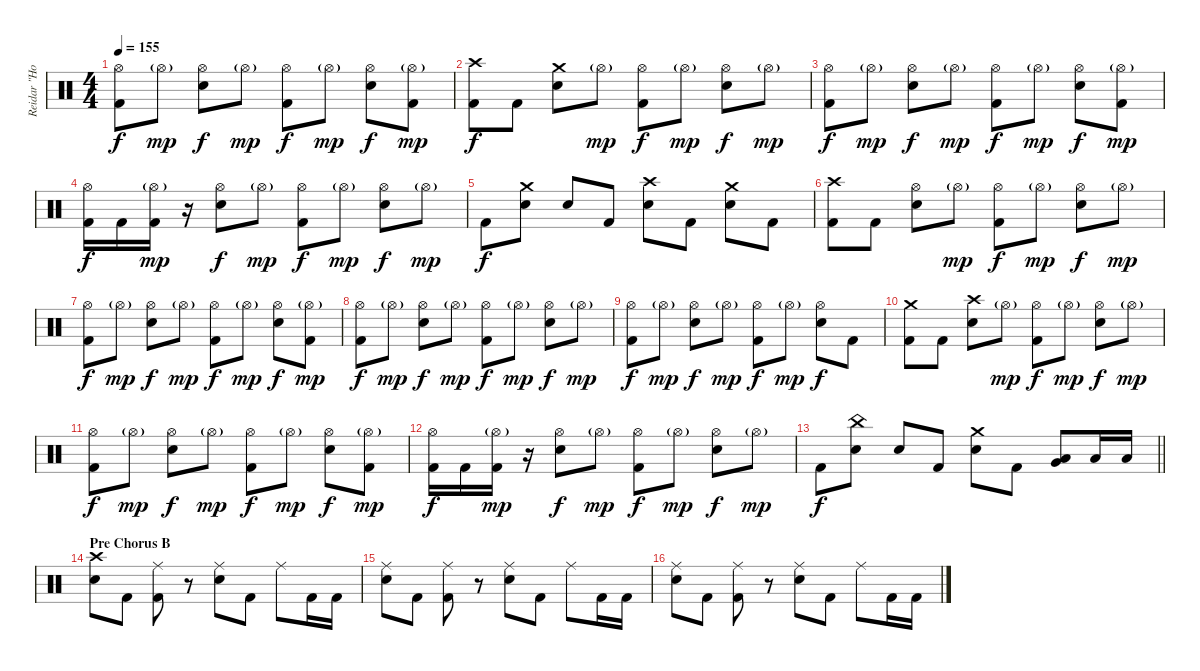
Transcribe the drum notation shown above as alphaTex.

\track ("Reidar \"Horgh\" Horghagen " "Reidar \"Ho") {instrument percussion}
\staff {score}
\articulation defaults
\ts (4 4)
\tempo 155
\clef neutral
\ks c
("Hi-Hat (open)" "Kick (hit) 2").8{dy f} "Hi-Hat (open)"{g}.8{dy mp} ("Hi-Hat (open)" "Snare (hit) 2").8{dy f} "Hi-Hat (open)"{g}.8{dy mp} ("Hi-Hat (open)" "Kick (hit) 2").8{dy f} "Hi-Hat (open)"{g}.8{dy mp} ("Hi-Hat (open)" "Snare (hit) 2").8{dy f} ("Hi-Hat (open)"{g} "Kick (hit) 2").8{dy mp} |
("Crash high (hit)" "Kick (hit) 2").8{dy f} "Kick (hit) 2".8 ("Crash medium (hit)" "Snare (hit) 2").8 "Hi-Hat (open)"{g}.8{dy mp} ("Hi-Hat (open)" "Kick (hit) 2").8{dy f} "Hi-Hat (open)"{g}.8{dy mp} ("Hi-Hat (open)" "Snare (hit) 2").8{dy f} "Hi-Hat (open)"{g}.8{dy mp} |
("Hi-Hat (open)" "Kick (hit) 2").8{dy f} "Hi-Hat (open)"{g}.8{dy mp} ("Hi-Hat (open)" "Snare (hit) 2").8{dy f} "Hi-Hat (open)"{g}.8{dy mp} ("Hi-Hat (open)" "Kick (hit) 2").8{dy f} "Hi-Hat (open)"{g}.8{dy mp} ("Hi-Hat (open)" "Snare (hit) 2").8{dy f} ("Hi-Hat (open)"{g} "Kick (hit) 2").8{dy mp} |
("Hi-Hat (open)" "Kick (hit) 2").16{dy f} "Kick (hit) 2".16 ("Hi-Hat (open)"{g} "Kick (hit) 2").16{dy mp} r.16 ("Hi-Hat (open)" "Snare (hit) 2").8{dy f} "Hi-Hat (open)"{g}.8{dy mp} ("Hi-Hat (open)" "Kick (hit) 2").8{dy f} "Hi-Hat (open)"{g}.8{dy mp} ("Hi-Hat (open)" "Snare (hit) 2").8{dy f} "Hi-Hat (open)"{g}.8{dy mp} |
"Kick (hit) 2".8{dy f} ("Crash medium (hit)" "Snare (hit) 2").8 "Snare (hit) 2".8 "Kick (hit) 2".8 ("Crash high (hit)" "Snare (hit) 2").8 "Kick (hit) 2".8 ("Crash medium (hit)" "Snare (hit) 2").8 "Kick (hit) 2".8 |
("Crash high (hit)" "Kick (hit) 2").8 "Kick (hit) 2".8 ("Hi-Hat (open)" "Snare (hit) 2").8 "Hi-Hat (open)"{g}.8{dy mp} ("Hi-Hat (open)" "Kick (hit) 2").8{dy f} "Hi-Hat (open)"{g}.8{dy mp} ("Hi-Hat (open)" "Snare (hit) 2").8{dy f} "Hi-Hat (open)"{g}.8{dy mp} |
("Hi-Hat (open)" "Kick (hit) 2").8{dy f} "Hi-Hat (open)"{g}.8{dy mp} ("Hi-Hat (open)" "Snare (hit) 2").8{dy f} "Hi-Hat (open)"{g}.8{dy mp} ("Hi-Hat (open)" "Kick (hit) 2").8{dy f} "Hi-Hat (open)"{g}.8{dy mp} ("Hi-Hat (open)" "Snare (hit) 2").8{dy f} ("Hi-Hat (open)"{g} "Kick (hit) 2").8{dy mp} |
("Hi-Hat (open)" "Kick (hit) 2").8{dy f} "Hi-Hat (open)"{g}.8{dy mp} ("Hi-Hat (open)" "Snare (hit) 2").8{dy f} "Hi-Hat (open)"{g}.8{dy mp} ("Hi-Hat (open)" "Kick (hit) 2").8{dy f} "Hi-Hat (open)"{g}.8{dy mp} ("Hi-Hat (open)" "Snare (hit) 2").8{dy f} "Hi-Hat (open)"{g}.8{dy mp} |
("Hi-Hat (open)" "Kick (hit) 2").8{dy f} "Hi-Hat (open)"{g}.8{dy mp} ("Hi-Hat (open)" "Snare (hit) 2").8{dy f} "Hi-Hat (open)"{g}.8{dy mp} ("Hi-Hat (open)" "Kick (hit) 2").8{dy f} "Hi-Hat (open)"{g}.8{dy mp} ("Hi-Hat (open)" "Snare (hit) 2").8{dy f} "Kick (hit) 2".8 |
("Crash medium (hit)" "Kick (hit) 2").8 "Kick (hit) 2".8 ("Crash high (hit)" "Snare (hit) 2").8 "Hi-Hat (open)"{g}.8{dy mp} ("Hi-Hat (open)" "Kick (hit) 2").8{dy f} "Hi-Hat (open)"{g}.8{dy mp} ("Hi-Hat (open)" "Snare (hit) 2").8{dy f} "Hi-Hat (open)"{g}.8{dy mp} |
("Hi-Hat (open)" "Kick (hit) 2").8{dy f} "Hi-Hat (open)"{g}.8{dy mp} ("Hi-Hat (open)" "Snare (hit) 2").8{dy f} "Hi-Hat (open)"{g}.8{dy mp} ("Hi-Hat (open)" "Kick (hit) 2").8{dy f} "Hi-Hat (open)"{g}.8{dy mp} ("Hi-Hat (open)" "Snare (hit) 2").8{dy f} ("Hi-Hat (open)"{g} "Kick (hit) 2").8{dy mp} |
("Hi-Hat (open)" "Kick (hit) 2").16{dy f} "Kick (hit) 2".16 ("Hi-Hat (open)"{g} "Kick (hit) 2").16{dy mp} r.16 ("Hi-Hat (open)" "Snare (hit) 2").8{dy f} "Hi-Hat (open)"{g}.8{dy mp} ("Hi-Hat (open)" "Kick (hit) 2").8{dy f} "Hi-Hat (open)"{g}.8{dy mp} ("Hi-Hat (open)" "Snare (hit) 2").8{dy f} "Hi-Hat (open)"{g}.8{dy mp} |
\barLineRight lightlight "Kick (hit) 2".8{dy f}
("China (hit)" "Snare (hit) 2").8 "Snare (hit) 2".8 "Kick (hit) 2".8 ("Crash medium (hit)" "Snare (hit) 2").8 "Kick (hit) 2".8 ("Low Tom (hit)" "Very Low Tom (hit)").8 "Low Floor Tom (hit)".16 "Low Floor Tom (hit)".16 |
\section ("" "Pre Chorus B")
("Crash high (hit)" "Snare (hit) 2").8 "Kick (hit) 2".8 ("Ride (middle)" "Kick (hit) 2").8 r.8 ("Ride (middle)" "Snare (hit) 2").8 "Kick (hit) 2".8 "Ride (middle)".8 "Kick (hit) 2".16 "Kick (hit) 2".16 |
("Ride (middle)" "Snare (hit) 2").8 "Kick (hit) 2".8 ("Ride (middle)" "Kick (hit) 2").8 r.8 ("Ride (middle)" "Snare (hit) 2").8 "Kick (hit) 2".8 "Ride (middle)".8 "Kick (hit) 2".16 "Kick (hit) 2".16 |
("Ride (middle)" "Snare (hit) 2").8 "Kick (hit) 2".8 ("Ride (middle)" "Kick (hit) 2").8 r.8 ("Ride (middle)" "Snare (hit) 2").8 "Kick (hit) 2".8 "Ride (middle)".8 "Kick (hit) 2".16 "Kick (hit) 2".16
